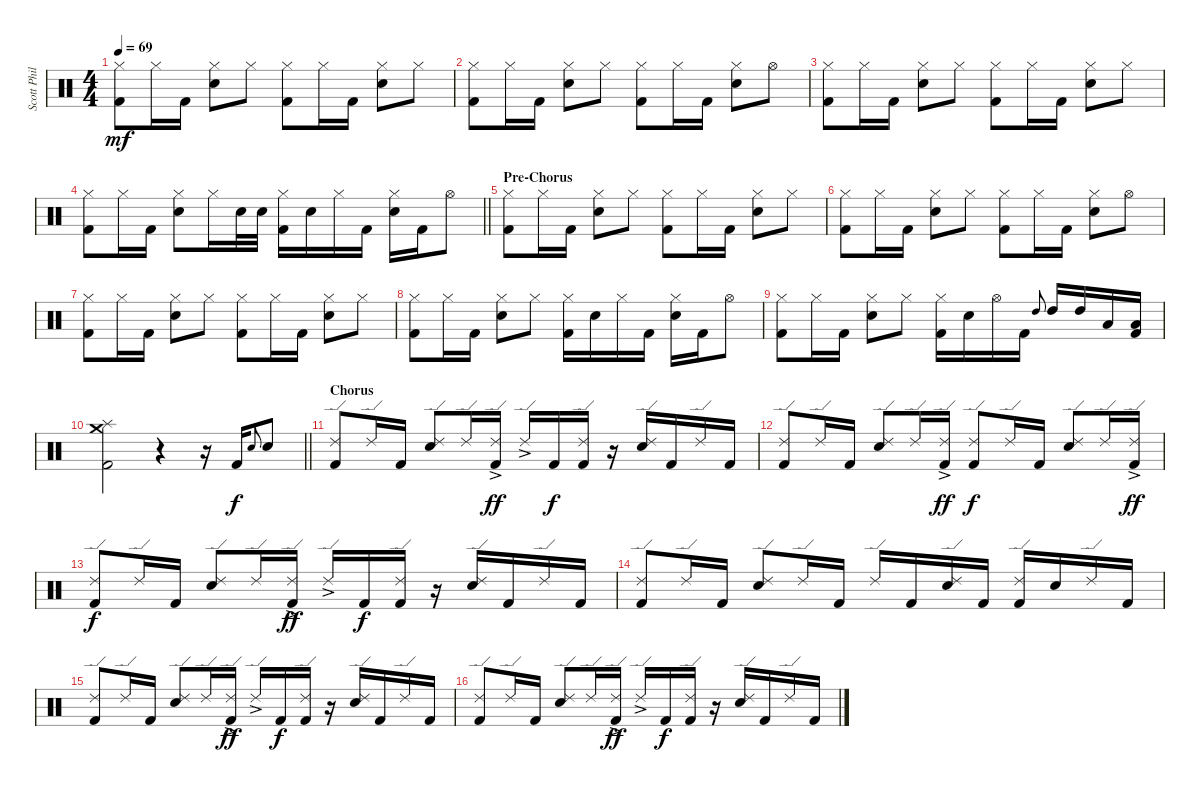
\track ("Scott Phillips" "Scott Phil") {instrument percussion}
\staff {score}
\articulation defaults
\ts (4 4)
\tempo 69
\clef neutral
\ks c
("Hi-Hat (closed)" "Kick (hit) 2").8{dy mf} "Hi-Hat (closed)".16 "Kick (hit) 2".16 ("Hi-Hat (closed)" "Electric Snare (hit)").8 "Hi-Hat (closed)".8 ("Hi-Hat (closed)" "Kick (hit) 2").8 "Hi-Hat (closed)".16 "Kick (hit) 2".16 ("Hi-Hat (closed)" "Electric Snare (hit)").8 "Hi-Hat (closed)".8 |
("Hi-Hat (closed)" "Kick (hit) 2").8 "Hi-Hat (closed)".16 "Kick (hit) 2".16 ("Hi-Hat (closed)" "Electric Snare (hit)").8 "Hi-Hat (closed)".8 ("Hi-Hat (closed)" "Kick (hit) 2").8 "Hi-Hat (closed)".16 "Kick (hit) 2".16 ("Hi-Hat (closed)" "Electric Snare (hit)").8 "Hi-Hat (open)".8 |
("Hi-Hat (closed)" "Kick (hit) 2").8 "Hi-Hat (closed)".16 "Kick (hit) 2".16 ("Hi-Hat (closed)" "Electric Snare (hit)").8 "Hi-Hat (closed)".8 ("Hi-Hat (closed)" "Kick (hit) 2").8 "Hi-Hat (closed)".16 "Kick (hit) 2".16 ("Hi-Hat (closed)" "Electric Snare (hit)").8 "Hi-Hat (closed)".8 |
\barLineRight lightlight
("Hi-Hat (closed)" "Kick (hit) 2").8 "Hi-Hat (closed)".16 "Kick (hit) 2".16 ("Hi-Hat (closed)" "Electric Snare (hit)").8 "Hi-Hat (closed)".16 "Electric Snare (hit)".32 "Electric Snare (hit)".32 ("Hi-Hat (closed)" "Kick (hit) 2").16 "Electric Snare (hit)".16 "Hi-Hat (closed)".16 "Kick (hit) 2".16 ("Hi-Hat (closed)" "Electric Snare (hit)").16 "Kick (hit) 2".16 "Hi-Hat (open)".8 |
\section ("" "Pre-Chorus")
("Hi-Hat (closed)" "Kick (hit) 2").8 "Hi-Hat (closed)".16 "Kick (hit) 2".16 ("Hi-Hat (closed)" "Electric Snare (hit)").8 "Hi-Hat (closed)".8 ("Hi-Hat (closed)" "Kick (hit) 2").8 "Hi-Hat (closed)".16 "Kick (hit) 2".16 ("Hi-Hat (closed)" "Electric Snare (hit)").8 "Hi-Hat (closed)".8 |
("Hi-Hat (closed)" "Kick (hit) 2").8 "Hi-Hat (closed)".16 "Kick (hit) 2".16 ("Hi-Hat (closed)" "Electric Snare (hit)").8 "Hi-Hat (closed)".8 ("Hi-Hat (closed)" "Kick (hit) 2").8 "Hi-Hat (closed)".16 "Kick (hit) 2".16 ("Hi-Hat (closed)" "Electric Snare (hit)").8 "Hi-Hat (open)".8 |
("Hi-Hat (closed)" "Kick (hit) 2").8 "Hi-Hat (closed)".16 "Kick (hit) 2".16 ("Hi-Hat (closed)" "Electric Snare (hit)").8 "Hi-Hat (closed)".8 ("Hi-Hat (closed)" "Kick (hit) 2").8 "Hi-Hat (closed)".16 "Kick (hit) 2".16 ("Hi-Hat (closed)" "Electric Snare (hit)").8 "Hi-Hat (closed)".8 |
("Hi-Hat (closed)" "Kick (hit) 2").8 "Hi-Hat (closed)".16 "Kick (hit) 2".16 ("Hi-Hat (closed)" "Electric Snare (hit)").8 "Hi-Hat (closed)".8 ("Hi-Hat (closed)" "Kick (hit) 2").16 "Electric Snare (hit)".16 "Hi-Hat (closed)".16 "Kick (hit) 2".16 ("Hi-Hat (closed)" "Electric Snare (hit)").16 "Kick (hit) 2".16 "Hi-Hat (open)".8 |
("Hi-Hat (closed)" "Kick (hit) 2").8 "Hi-Hat (closed)".16 "Kick (hit) 2".16 ("Hi-Hat (closed)" "Electric Snare (hit)").8 "Hi-Hat (closed)".8 ("Hi-Hat (closed)" "Kick (hit) 2").16 "Electric Snare (hit)".16 "Hi-Hat (open)".16 "Kick (hit) 2".16 "High Tom (hit)".8{gr onbeat} "High Tom (hit)".16 "High Tom (hit)".16 "Low Tom (hit)".16 ("Low Floor Tom (hit)" "Kick (hit) 2").16 |
\barLineRight lightlight
("Crash medium (hit)" "Splash (hit)" "Kick (hit) 2").2 r.4 r.16 "Kick (hit) 2".16{dy f} "Electric Snare (hit)".8{gr onbeat} "Electric Snare (hit)".8 |
\section ("" "Chorus")
("Ride (edge) 2" "Kick (hit) 2").8 "Ride (edge) 2".16 "Kick (hit) 2".16 ("Ride (edge) 2" "Electric Snare (hit)").8 "Ride (edge) 2".16 ("Ride (edge) 2"{ac} "Kick (hit) 2").16{dy ff} "Ride (edge) 2"{ac}.16 "Kick (hit) 2".16{dy f} ("Ride (edge) 2" "Kick (hit) 2").16 r.16 ("Ride (edge) 2" "Electric Snare (hit)").16 "Kick (hit) 2".16 "Ride (edge) 2".16 "Kick (hit) 2".16 |
("Ride (edge) 2" "Kick (hit) 2").8 "Ride (edge) 2".16 "Kick (hit) 2".16 ("Ride (edge) 2" "Electric Snare (hit)").8 "Ride (edge) 2".16 ("Ride (edge) 2"{ac} "Kick (hit) 2").16{dy ff} ("Ride (edge) 2" "Kick (hit) 2").8{dy f} "Ride (edge) 2".16 "Kick (hit) 2".16 ("Ride (edge) 2" "Electric Snare (hit)").8 "Ride (edge) 2".16 ("Ride (edge) 2"{ac} "Kick (hit) 2").16{dy ff} |
("Ride (edge) 2" "Kick (hit) 2").8{dy f} "Ride (edge) 2".16 "Kick (hit) 2".16 ("Ride (edge) 2" "Electric Snare (hit)").8 "Ride (edge) 2".16 ("Ride (edge) 2"{ac} "Kick (hit) 2").16{dy ff} "Ride (edge) 2"{ac}.16 "Kick (hit) 2".16{dy f} ("Ride (edge) 2" "Kick (hit) 2").16 r.16 ("Ride (edge) 2" "Electric Snare (hit)").16 "Kick (hit) 2".16 "Ride (edge) 2".16 "Kick (hit) 2".16 |
("Ride (edge) 2" "Kick (hit) 2").8 "Ride (edge) 2".16 "Kick (hit) 2".16 ("Ride (edge) 2" "Electric Snare (hit)").8 "Ride (edge) 2".16 "Kick (hit) 2".16 "Ride (edge) 2".16 "Kick (hit) 2".16 ("Ride (edge) 2" "Electric Snare (hit)").16 "Kick (hit) 2".16 ("Ride (edge) 2" "Kick (hit) 2").16 "Electric Snare (hit)".16 "Ride (edge) 2".16 "Kick (hit) 2".16 |
("Ride (edge) 2" "Kick (hit) 2").8 "Ride (edge) 2".16 "Kick (hit) 2".16 ("Ride (edge) 2" "Electric Snare (hit)").8 "Ride (edge) 2".16 ("Ride (edge) 2"{ac} "Kick (hit) 2").16{dy ff} "Ride (edge) 2"{ac}.16 "Kick (hit) 2".16{dy f} ("Ride (edge) 2" "Kick (hit) 2").16 r.16 ("Ride (edge) 2" "Electric Snare (hit)").16 "Kick (hit) 2".16 "Ride (edge) 2".16 "Kick (hit) 2".16 |
("Ride (edge) 2" "Kick (hit) 2").8 "Ride (edge) 2".16 "Kick (hit) 2".16 ("Ride (edge) 2" "Electric Snare (hit)").8 "Ride (edge) 2".16 ("Ride (edge) 2"{ac} "Kick (hit) 2").16{dy ff} "Ride (edge) 2"{ac}.16 "Kick (hit) 2".16{dy f} ("Ride (edge) 2" "Kick (hit) 2").16 r.16 ("Ride (edge) 2" "Electric Snare (hit)").16 "Kick (hit) 2".16 "Ride (edge) 2".16 "Kick (hit) 2".16
